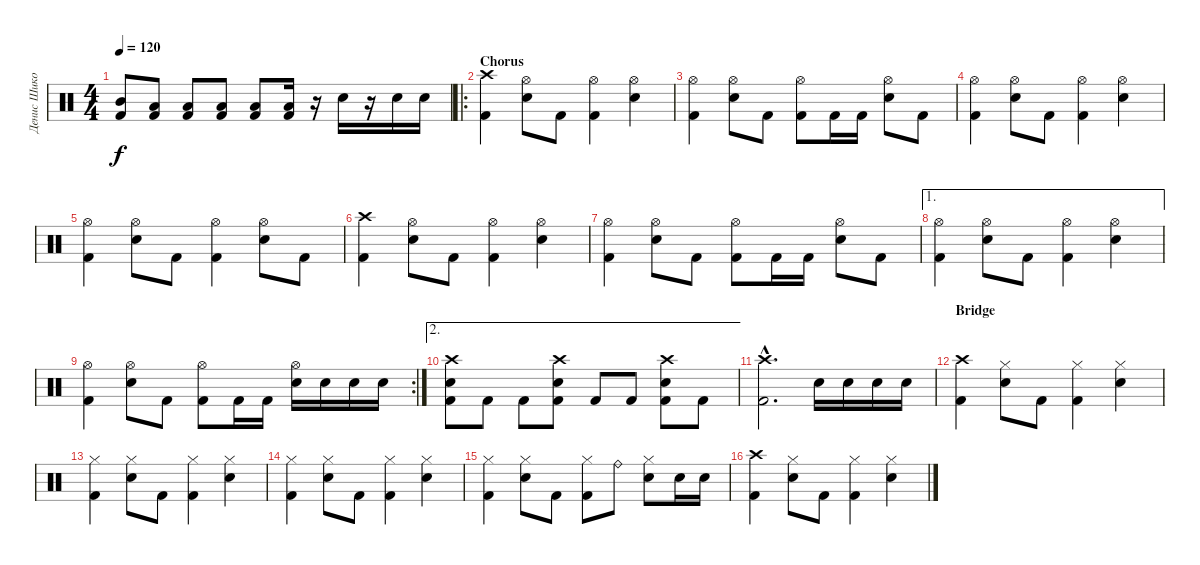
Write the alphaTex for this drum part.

\track ("Денис Шиков" "Денис Шико") {instrument percussion}
\staff {score}
\articulation defaults
\ts (4 4)
\tempo 120
\clef neutral
\ks c
("Mid Tom (hit)" "Kick (hit) 2").8{dy f} ("Low Floor Tom (hit)" "Kick (hit) 2").8 ("Low Floor Tom (hit)" "Kick (hit) 2").8 ("Low Tom (hit)" "Kick (hit) 2").8 ("Low Floor Tom (hit)" "Kick (hit) 2").8 ("Low Floor Tom (hit)" "Kick (hit) 2").16 r.16 "Electric Snare (hit)".16 r.16 "Electric Snare (hit)".16 "Electric Snare (hit)".16 |
\ro
\section ("" "Chorus")
("Crash high (hit)" "Kick (hit) 2").4 ("Hi-Hat (open)" "Electric Snare (hit)").8 "Kick (hit) 2".8 ("Hi-Hat (open)" "Kick (hit) 2").4 ("Hi-Hat (open)" "Electric Snare (hit)").4 |
("Hi-Hat (open)" "Kick (hit) 2").4 ("Hi-Hat (open)" "Electric Snare (hit)").8 "Kick (hit) 2".8 ("Hi-Hat (open)" "Kick (hit) 2").8 "Kick (hit) 2".16 "Kick (hit) 2".16 ("Hi-Hat (open)" "Electric Snare (hit)").8 "Kick (hit) 2".8 |
("Hi-Hat (open)" "Kick (hit) 2").4 ("Hi-Hat (open)" "Electric Snare (hit)").8 "Kick (hit) 2".8 ("Hi-Hat (open)" "Kick (hit) 2").4 ("Hi-Hat (open)" "Electric Snare (hit)").4 |
("Hi-Hat (open)" "Kick (hit) 2").4 ("Hi-Hat (open)" "Electric Snare (hit)").8 "Kick (hit) 2".8 ("Hi-Hat (open)" "Kick (hit) 2").4 ("Hi-Hat (open)" "Electric Snare (hit)").8 "Kick (hit) 2".8 |
("Crash high (hit)" "Kick (hit) 2").4 ("Hi-Hat (open)" "Electric Snare (hit)").8 "Kick (hit) 2".8 ("Hi-Hat (open)" "Kick (hit) 2").4 ("Hi-Hat (open)" "Electric Snare (hit)").4 |
("Hi-Hat (open)" "Kick (hit) 2").4 ("Hi-Hat (open)" "Electric Snare (hit)").8 "Kick (hit) 2".8 ("Hi-Hat (open)" "Kick (hit) 2").8 "Kick (hit) 2".16 "Kick (hit) 2".16 ("Hi-Hat (open)" "Electric Snare (hit)").8 "Kick (hit) 2".8 |
\ae 1
("Hi-Hat (open)" "Kick (hit) 2").4 ("Hi-Hat (open)" "Electric Snare (hit)").8 "Kick (hit) 2".8 ("Hi-Hat (open)" "Kick (hit) 2").4 ("Hi-Hat (open)" "Electric Snare (hit)").4 |
\rc 2
("Hi-Hat (open)" "Kick (hit) 2").4 ("Hi-Hat (open)" "Electric Snare (hit)").8 "Kick (hit) 2".8 ("Hi-Hat (open)" "Kick (hit) 2").8 "Kick (hit) 2".16 "Kick (hit) 2".16 ("Hi-Hat (open)" "Electric Snare (hit)").16 "Electric Snare (hit)".16 "Electric Snare (hit)".16 "Electric Snare (hit)".16 |
\ae 2
("Crash high (hit)" "Electric Snare (hit)" "Kick (hit) 2").8 "Kick (hit) 2".8 "Kick (hit) 2".8 ("Crash high (hit)" "Electric Snare (hit)" "Kick (hit) 2").8 "Kick (hit) 2".8 "Kick (hit) 2".8 ("Crash high (hit)" "Electric Snare (hit)" "Kick (hit) 2").8 "Kick (hit) 2".8 |
("Crash high (hit)"{hac} "Kick (hit) 2"{hac}).2{d} "Electric Snare (hit)".16 "Electric Snare (hit)".16 "Electric Snare (hit)".16 "Electric Snare (hit)".16 |
\section ("" "Bridge")
("Crash high (hit)" "Kick (hit) 2").4 ("Hi-Hat (closed)" "Electric Snare (hit)").8 "Kick (hit) 2".8 ("Hi-Hat (closed)" "Kick (hit) 2").4 ("Hi-Hat (closed)" "Electric Snare (hit)").4 |
("Hi-Hat (closed)" "Kick (hit) 2").4 ("Hi-Hat (closed)" "Electric Snare (hit)").8 "Kick (hit) 2".8 ("Hi-Hat (closed)" "Kick (hit) 2").4 ("Hi-Hat (closed)" "Electric Snare (hit)").4 |
("Hi-Hat (closed)" "Kick (hit) 2").4 ("Hi-Hat (closed)" "Electric Snare (hit)").8 "Kick (hit) 2".8 ("Hi-Hat (closed)" "Kick (hit) 2").4 ("Hi-Hat (closed)" "Electric Snare (hit)").4 |
("Hi-Hat (closed)" "Kick (hit) 2").4 ("Hi-Hat (closed)" "Electric Snare (hit)").8 "Kick (hit) 2".8 ("Hi-Hat (closed)" "Kick (hit) 2").8 "Ride (bell)".8 ("Hi-Hat (closed)" "Electric Snare (hit)").8 "Electric Snare (hit)".16 "Electric Snare (hit)".16 |
("Crash high (hit)" "Kick (hit) 2").4 ("Hi-Hat (closed)" "Electric Snare (hit)").8 "Kick (hit) 2".8 ("Hi-Hat (closed)" "Kick (hit) 2").4 ("Hi-Hat (closed)" "Electric Snare (hit)").4
